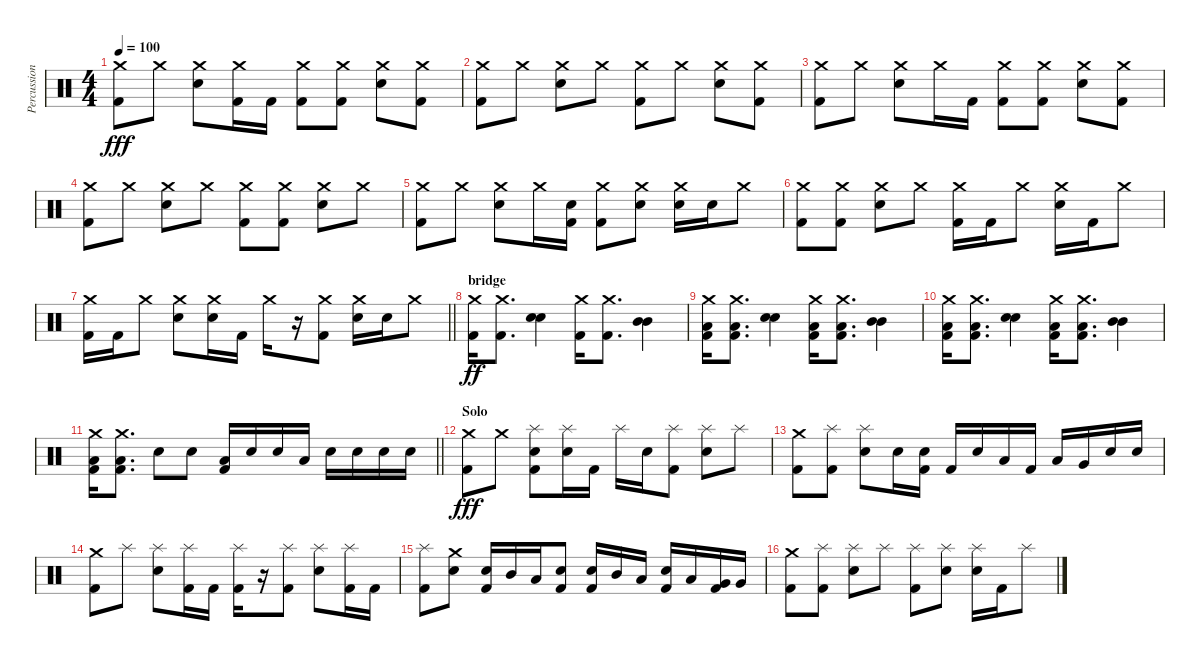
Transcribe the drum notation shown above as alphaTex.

\track ("Percussion" "Percussion") {instrument percussion}
\staff {score}
\articulation defaults
\ts (4 4)
\tempo 100
\clef neutral
\ks c
("Crash medium (hit)" "Kick (hit) 2").8{dy fff} "Crash medium (hit)".8 ("Crash medium (hit)" "Snare (hit) 2").8 ("Crash medium (hit)" "Kick (hit) 2").16 "Kick (hit) 2".16 ("Crash medium (hit)" "Kick (hit) 2").8 ("Crash medium (hit)" "Kick (hit) 2").8 ("Crash medium (hit)" "Snare (hit) 2").8 ("Crash medium (hit)" "Kick (hit) 2").8 |
("Crash medium (hit)" "Kick (hit) 2").8 "Crash medium (hit)".8 ("Crash medium (hit)" "Snare (hit) 2").8 "Crash medium (hit)".8 ("Crash medium (hit)" "Kick (hit) 2").8 "Crash medium (hit)".8 ("Crash medium (hit)" "Snare (hit) 2").8 ("Crash medium (hit)" "Kick (hit) 2").8 |
("Crash medium (hit)" "Kick (hit) 2").8 "Crash medium (hit)".8 ("Crash medium (hit)" "Snare (hit) 2").8 "Crash medium (hit)".16 "Kick (hit) 2".16 ("Crash medium (hit)" "Kick (hit) 2").8 ("Crash medium (hit)" "Kick (hit) 2").8 ("Crash medium (hit)" "Snare (hit) 2").8 ("Crash medium (hit)" "Kick (hit) 2").8 |
("Crash medium (hit)" "Kick (hit) 2").8 "Crash medium (hit)".8 ("Crash medium (hit)" "Snare (hit) 2").8 "Crash medium (hit)".8 ("Crash medium (hit)" "Kick (hit) 2").8 ("Crash medium (hit)" "Kick (hit) 2").8 ("Crash medium (hit)" "Snare (hit) 2").8 "Crash medium (hit)".8 |
("Crash medium (hit)" "Kick (hit) 2").8 "Crash medium (hit)".8 ("Crash medium (hit)" "Snare (hit) 2").8 "Crash medium (hit)".16 ("Snare (hit) 2" "Kick (hit) 2").16 ("Crash medium (hit)" "Kick (hit) 2").8 ("Crash medium (hit)" "Snare (hit) 2").8 ("Crash medium (hit)" "Snare (hit) 2").16 "Snare (hit) 2".16 "Crash medium (hit)".8 |
("Crash medium (hit)" "Kick (hit) 2").8 ("Crash medium (hit)" "Kick (hit) 2").8 ("Crash medium (hit)" "Snare (hit) 2").8 "Crash medium (hit)".8 ("Crash medium (hit)" "Kick (hit) 2").16 "Kick (hit) 2".16 "Crash medium (hit)".8 ("Crash medium (hit)" "Snare (hit) 2").16 "Kick (hit) 2".16 "Crash medium (hit)".8 |
\barLineRight lightlight
("Crash medium (hit)" "Kick (hit) 2").16 "Kick (hit) 2".16 "Crash medium (hit)".8 ("Crash medium (hit)" "Snare (hit) 2").8 ("Crash medium (hit)" "Snare (hit) 2").16 "Kick (hit) 2".16 "Crash medium (hit)".16 r.16 ("Crash medium (hit)" "Kick (hit) 2").8 ("Crash medium (hit)" "Snare (hit) 2").16 "Snare (hit) 2".16 "Crash medium (hit)".8 |
\section ("" "bridge")
("Crash medium (hit)" "Kick (hit) 2").16{dy ff} ("Crash medium (hit)" "Kick (hit) 2").8{d} ("Snare (hit) 2" "Snare (hit) 2").4 ("Crash medium (hit)" "Kick (hit) 2").16 ("Crash medium (hit)" "Kick (hit) 2").8{d} ("Mid Tom (hit)" "Mid Tom (hit)").4 |
("Crash medium (hit)" "Low Tom (hit)" "Kick (hit) 2").16 ("Crash medium (hit)" "Low Tom (hit)" "Kick (hit) 2").8{d} ("Snare (hit) 2" "Snare (hit) 2").4 ("Crash medium (hit)" "Low Tom (hit)" "Kick (hit) 2").16 ("Crash medium (hit)" "Low Tom (hit)" "Kick (hit) 2").8{d} ("Mid Tom (hit)" "Mid Tom (hit)").4 |
("Crash medium (hit)" "Low Tom (hit)" "Kick (hit) 2").16 ("Crash medium (hit)" "Low Tom (hit)" "Kick (hit) 2").8{d} ("Snare (hit) 2" "Snare (hit) 2").4 ("Crash medium (hit)" "Low Tom (hit)" "Kick (hit) 2").16 ("Crash medium (hit)" "Low Tom (hit)" "Kick (hit) 2").8{d} ("Mid Tom (hit)" "Mid Tom (hit)").4 |
\barLineRight lightlight
("Crash medium (hit)" "Low Tom (hit)" "Kick (hit) 2").16 ("Crash medium (hit)" "Low Tom (hit)" "Kick (hit) 2").8{d} "Snare (hit) 2".8 "Snare (hit) 2".8 ("Low Tom (hit)" "Kick (hit) 2").16 "Snare (hit) 2".16 "Snare (hit) 2".16 "Low Tom (hit)".16 "Snare (hit) 2".16 "Snare (hit) 2".16 "Snare (hit) 2".16 "Snare (hit) 2".16 |
\section ("" "Solo")
("Crash medium (hit)" "Kick (hit) 2").8{dy fff} "Crash medium (hit)".8 ("Splash (hit)" "Snare (hit) 2" "Kick (hit) 2").8 ("Splash (hit)" "Snare (hit) 2").16 "Kick (hit) 2".16 "Splash (hit)".16 "Snare (hit) 2".16 ("Splash (hit)" "Kick (hit) 2").8 ("Splash (hit)" "Snare (hit) 2").8 "Splash (hit)".8 |
("Crash medium (hit)" "Kick (hit) 2").8 ("Splash (hit)" "Kick (hit) 2").8 ("Splash (hit)" "Snare (hit) 2").8 "Snare (hit) 2".16 ("Snare (hit) 2" "Kick (hit) 2").16 "Kick (hit) 2".16 "Snare (hit) 2".16 "Low Tom (hit)".16 "Kick (hit) 2".16 "Low Tom (hit)".16 "Very Low Tom (hit)".16 "Snare (hit) 2".16 "Snare (hit) 2".16 |
("Crash medium (hit)" "Kick (hit) 2").8 "Splash (hit)".8 ("Splash (hit)" "Snare (hit) 2").8 ("Splash (hit)" "Kick (hit) 2").16 "Kick (hit) 2".16 ("Splash (hit)" "Kick (hit) 2").16 r.16 ("Splash (hit)" "Kick (hit) 2").8 ("Splash (hit)" "Snare (hit) 2").8 ("Splash (hit)" "Kick (hit) 2").16 "Kick (hit) 2".16 |
("Splash (hit)" "Kick (hit) 2").8 ("Crash medium (hit)" "Snare (hit) 2").8 ("Snare (hit) 2" "Kick (hit) 2").16 "Mid Tom (hit)".16 "Low Tom (hit)".16 ("Snare (hit) 2" "Kick (hit) 2").8 ("Snare (hit) 2" "Kick (hit) 2").16 "Mid Tom (hit)".16 "Low Tom (hit)".16 ("Snare (hit) 2" "Kick (hit) 2").16 "Low Tom (hit)".16 ("Very Low Tom (hit)" "Kick (hit) 2").16 "Very Low Tom (hit)".16 |
("Crash medium (hit)" "Kick (hit) 2").8 ("Splash (hit)" "Kick (hit) 2").8 ("Splash (hit)" "Snare (hit) 2").8 "Splash (hit)".8 ("Splash (hit)" "Kick (hit) 2").8 ("Splash (hit)" "Snare (hit) 2").8 ("Splash (hit)" "Snare (hit) 2").16 "Kick (hit) 2".16 "Splash (hit)".8
